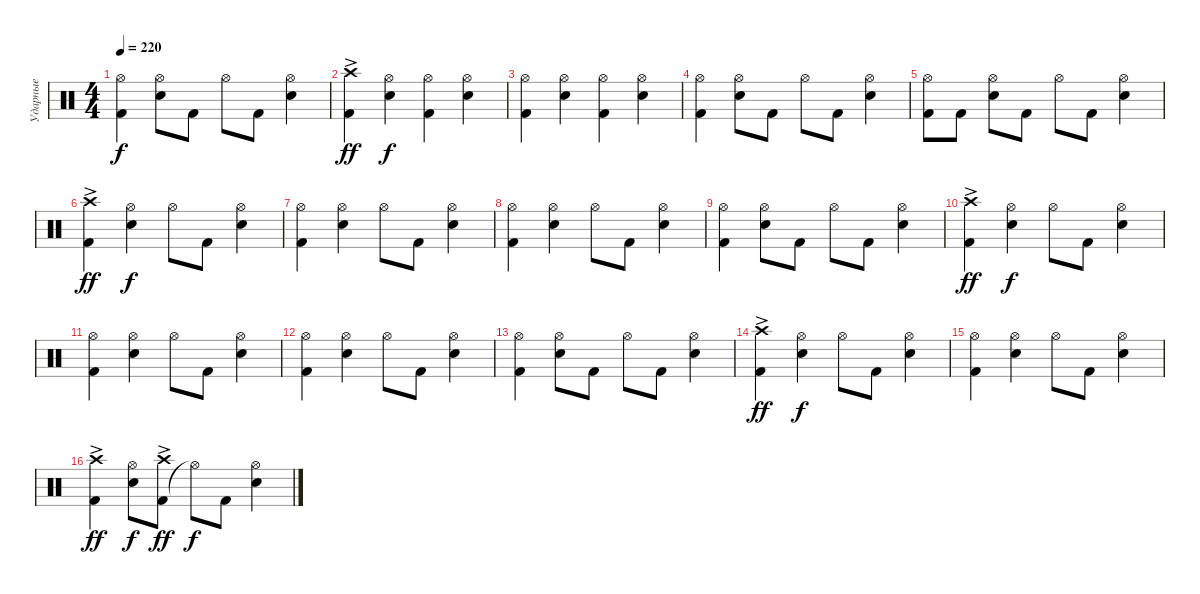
\track ("Ударные" "Ударные") {instrument percussion}
\staff {score}
\articulation defaults
\ts (4 4)
\tempo 220
\clef neutral
\ks c
("Kick (hit) 2" "Hi-Hat (open)").4{dy f} ("Snare (hit) 2" "Hi-Hat (open)").8 "Kick (hit) 2".8 "Hi-Hat (open)".8 "Kick (hit) 2".8 ("Snare (hit) 2" "Hi-Hat (open)").4 |
("Kick (hit) 2" "Crash high (hit)"{ac}).4{dy ff} ("Snare (hit) 2" "Hi-Hat (open)").4{dy f} ("Kick (hit) 2" "Hi-Hat (open)").4 ("Snare (hit) 2" "Hi-Hat (open)").4 |
("Kick (hit) 2" "Hi-Hat (open)").4 ("Snare (hit) 2" "Hi-Hat (open)").4 ("Kick (hit) 2" "Hi-Hat (open)").4 ("Snare (hit) 2" "Hi-Hat (open)").4 |
("Kick (hit) 2" "Hi-Hat (open)").4 ("Snare (hit) 2" "Hi-Hat (open)").8 "Kick (hit) 2".8 "Hi-Hat (open)".8 "Kick (hit) 2".8 ("Snare (hit) 2" "Hi-Hat (open)").4 |
("Kick (hit) 2" "Hi-Hat (open)").8 "Kick (hit) 2".8 ("Snare (hit) 2" "Hi-Hat (open)").8 "Kick (hit) 2".8 "Hi-Hat (open)".8 "Kick (hit) 2".8 ("Snare (hit) 2" "Hi-Hat (open)").4 |
("Kick (hit) 2" "Crash high (hit)"{ac}).4{dy ff} ("Snare (hit) 2" "Hi-Hat (open)").4{dy f} "Hi-Hat (open)".8 "Kick (hit) 2".8 ("Snare (hit) 2" "Hi-Hat (open)").4 |
("Kick (hit) 2" "Hi-Hat (open)").4 ("Snare (hit) 2" "Hi-Hat (open)").4 "Hi-Hat (open)".8 "Kick (hit) 2".8 ("Snare (hit) 2" "Hi-Hat (open)").4 |
("Kick (hit) 2" "Hi-Hat (open)").4 ("Snare (hit) 2" "Hi-Hat (open)").4 "Hi-Hat (open)".8 "Kick (hit) 2".8 ("Snare (hit) 2" "Hi-Hat (open)").4 |
("Kick (hit) 2" "Hi-Hat (open)").4 ("Snare (hit) 2" "Hi-Hat (open)").8 "Kick (hit) 2".8 "Hi-Hat (open)".8 "Kick (hit) 2".8 ("Snare (hit) 2" "Hi-Hat (open)").4 |
("Kick (hit) 2" "Crash high (hit)"{ac}).4{dy ff} ("Snare (hit) 2" "Hi-Hat (open)").4{dy f} "Hi-Hat (open)".8 "Kick (hit) 2".8 ("Snare (hit) 2" "Hi-Hat (open)").4 |
("Kick (hit) 2" "Hi-Hat (open)").4 ("Snare (hit) 2" "Hi-Hat (open)").4 "Hi-Hat (open)".8 "Kick (hit) 2".8 ("Snare (hit) 2" "Hi-Hat (open)").4 |
("Kick (hit) 2" "Hi-Hat (open)").4 ("Snare (hit) 2" "Hi-Hat (open)").4 "Hi-Hat (open)".8 "Kick (hit) 2".8 ("Snare (hit) 2" "Hi-Hat (open)").4 |
("Kick (hit) 2" "Hi-Hat (open)").4 ("Snare (hit) 2" "Hi-Hat (open)").8 "Kick (hit) 2".8 "Hi-Hat (open)".8 "Kick (hit) 2".8 ("Snare (hit) 2" "Hi-Hat (open)").4 |
("Kick (hit) 2" "Crash high (hit)"{ac}).4{dy ff} ("Snare (hit) 2" "Hi-Hat (open)").4{dy f} "Hi-Hat (open)".8 "Kick (hit) 2".8 ("Snare (hit) 2" "Hi-Hat (open)").4 |
("Kick (hit) 2" "Hi-Hat (open)").4 ("Snare (hit) 2" "Hi-Hat (open)").4 "Hi-Hat (open)".8 "Kick (hit) 2".8 ("Snare (hit) 2" "Hi-Hat (open)").4 |
("Kick (hit) 2" "Crash high (hit)"{ac}).4{dy ff} ("Snare (hit) 2" "Hi-Hat (open)").8{dy f} ("Kick (hit) 2" "Crash high (hit)"{ac}).8{dy ff} "Hi-Hat (open)"{t}.8{dy f} "Kick (hit) 2".8 ("Snare (hit) 2" "Hi-Hat (open)").4
